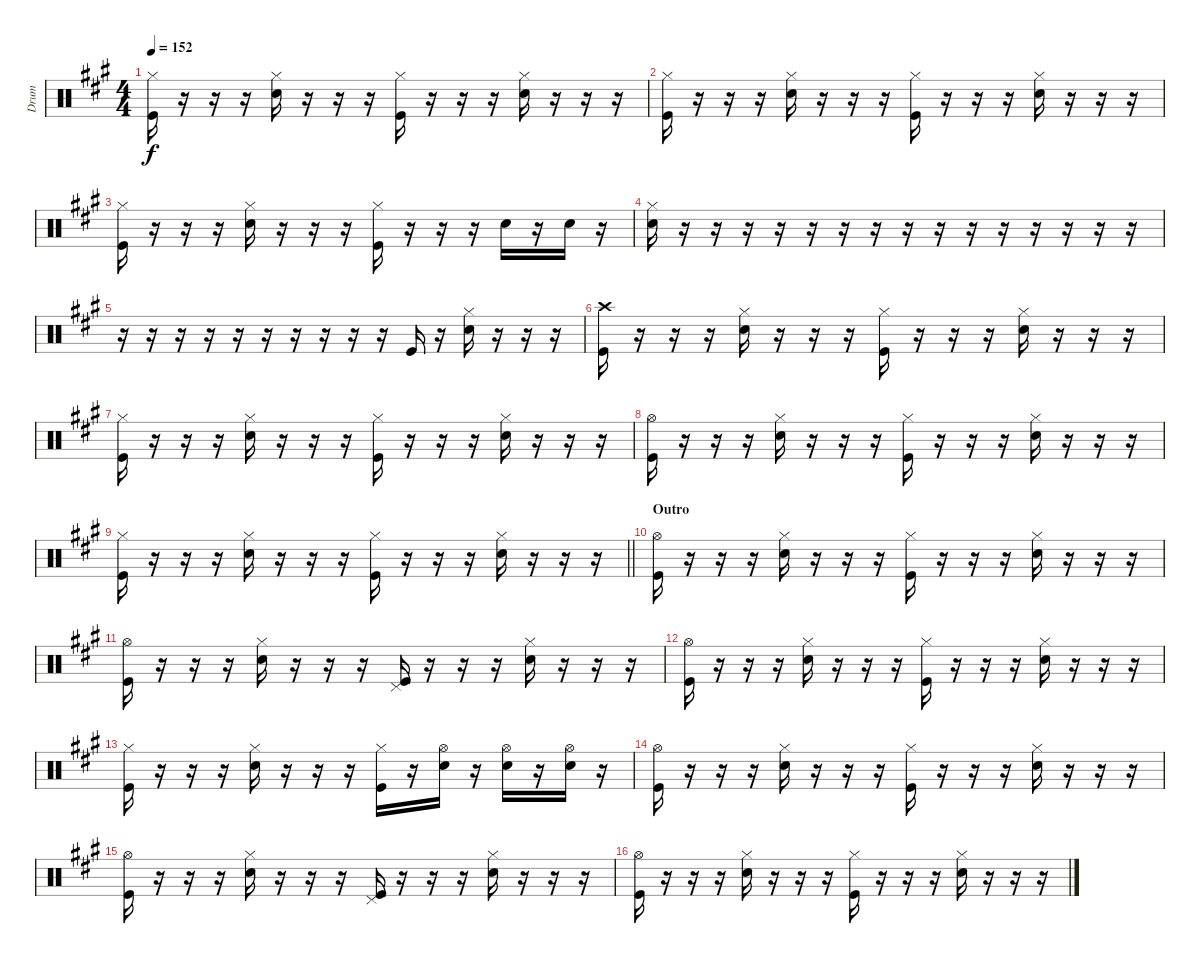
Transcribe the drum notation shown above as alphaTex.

\track ("Drum" "Drum") {instrument percussion}
\staff {score}
\articulation defaults
\ts (4 4)
\tempo 152
\clef neutral
\ks a
("Kick (hit)" "Hi-Hat (closed)").16{dy f} r.16 r.16 r.16 ("Snare (hit) 2" "Hi-Hat (closed)").16 r.16 r.16 r.16 ("Kick (hit)" "Hi-Hat (closed)").16 r.16 r.16 r.16 ("Snare (hit) 2" "Hi-Hat (closed)").16 r.16 r.16 r.16 |
("Kick (hit)" "Hi-Hat (closed)").16 r.16 r.16 r.16 ("Snare (hit) 2" "Hi-Hat (closed)").16 r.16 r.16 r.16 ("Kick (hit)" "Hi-Hat (closed)").16 r.16 r.16 r.16 ("Snare (hit) 2" "Hi-Hat (closed)").16 r.16 r.16 r.16 |
("Kick (hit)" "Hi-Hat (closed)").16 r.16 r.16 r.16 ("Snare (hit) 2" "Hi-Hat (closed)").16 r.16 r.16 r.16 ("Kick (hit)" "Hi-Hat (closed)").16 r.16 r.16 r.16 "Snare (hit) 2".16 r.16 "Snare (hit) 2".16 r.16 |
("Snare (hit) 2" "Hi-Hat (closed)").16 r.16 r.16 r.16 r.16 r.16 r.16 r.16 r.16 r.16 r.16 r.16 r.16 r.16 r.16 r.16 |
r.16 r.16 r.16 r.16 r.16 r.16 r.16 r.16 r.16 r.16 "Kick (hit)".16 r.16 ("Snare (hit) 2" "Hi-Hat (closed)").16 r.16 r.16 r.16 |
("Kick (hit)" "Crash high (hit)").16 r.16 r.16 r.16 ("Snare (hit) 2" "Hi-Hat (closed)").16 r.16 r.16 r.16 ("Kick (hit)" "Hi-Hat (closed)").16 r.16 r.16 r.16 ("Snare (hit) 2" "Hi-Hat (closed)").16 r.16 r.16 r.16 |
("Kick (hit)" "Hi-Hat (closed)").16 r.16 r.16 r.16 ("Snare (hit) 2" "Hi-Hat (closed)").16 r.16 r.16 r.16 ("Kick (hit)" "Hi-Hat (closed)").16 r.16 r.16 r.16 ("Snare (hit) 2" "Hi-Hat (closed)").16 r.16 r.16 r.16 |
("Kick (hit)" "Hi-Hat (open)").16 r.16 r.16 r.16 ("Snare (hit) 2" "Hi-Hat (closed)").16 r.16 r.16 r.16 ("Kick (hit)" "Hi-Hat (closed)").16 r.16 r.16 r.16 ("Snare (hit) 2" "Hi-Hat (closed)").16 r.16 r.16 r.16 |
\barLineRight lightlight
("Kick (hit)" "Hi-Hat (closed)").16 r.16 r.16 r.16 ("Snare (hit) 2" "Hi-Hat (closed)").16 r.16 r.16 r.16 ("Kick (hit)" "Hi-Hat (closed)").16 r.16 r.16 r.16 ("Snare (hit) 2" "Hi-Hat (closed)").16 r.16 r.16 r.16 |
\section ("" "Outro")
("Kick (hit)" "Hi-Hat (open)").16 r.16 r.16 r.16 ("Snare (hit) 2" "Hi-Hat (closed)").16 r.16 r.16 r.16 ("Kick (hit)" "Hi-Hat (closed)").16 r.16 r.16 r.16 ("Snare (hit) 2" "Hi-Hat (closed)").16 r.16 r.16 r.16 |
("Kick (hit)" "Hi-Hat (open)").16 r.16 r.16 r.16 ("Snare (hit) 2" "Hi-Hat (closed)").16 r.16 r.16 r.16 ("Kick (hit)" "Pedal Hi-Hat (hit)").16 r.16 r.16 r.16 ("Snare (hit) 2" "Hi-Hat (closed)").16 r.16 r.16 r.16 |
("Kick (hit)" "Hi-Hat (open)").16 r.16 r.16 r.16 ("Snare (hit) 2" "Hi-Hat (closed)").16 r.16 r.16 r.16 ("Kick (hit)" "Hi-Hat (closed)").16 r.16 r.16 r.16 ("Snare (hit) 2" "Hi-Hat (closed)").16 r.16 r.16 r.16 |
("Kick (hit)" "Hi-Hat (closed)").16 r.16 r.16 r.16 ("Snare (hit) 2" "Hi-Hat (closed)").16 r.16 r.16 r.16 ("Kick (hit)" "Hi-Hat (closed)").16 r.16 ("Snare (hit) 2" "Hi-Hat (open)").16 r.16 ("Snare (hit) 2" "Hi-Hat (open)").16 r.16 ("Snare (hit) 2" "Hi-Hat (open)").16 r.16 |
("Kick (hit)" "Hi-Hat (open)").16 r.16 r.16 r.16 ("Snare (hit) 2" "Hi-Hat (closed)").16 r.16 r.16 r.16 ("Kick (hit)" "Hi-Hat (closed)").16 r.16 r.16 r.16 ("Snare (hit) 2" "Hi-Hat (closed)").16 r.16 r.16 r.16 |
("Kick (hit)" "Hi-Hat (open)").16 r.16 r.16 r.16 ("Snare (hit) 2" "Hi-Hat (closed)").16 r.16 r.16 r.16 ("Kick (hit)" "Pedal Hi-Hat (hit)").16 r.16 r.16 r.16 ("Snare (hit) 2" "Hi-Hat (closed)").16 r.16 r.16 r.16 |
("Kick (hit)" "Hi-Hat (open)").16 r.16 r.16 r.16 ("Snare (hit) 2" "Hi-Hat (closed)").16 r.16 r.16 r.16 ("Kick (hit)" "Hi-Hat (closed)").16 r.16 r.16 r.16 ("Snare (hit) 2" "Hi-Hat (closed)").16 r.16 r.16 r.16
